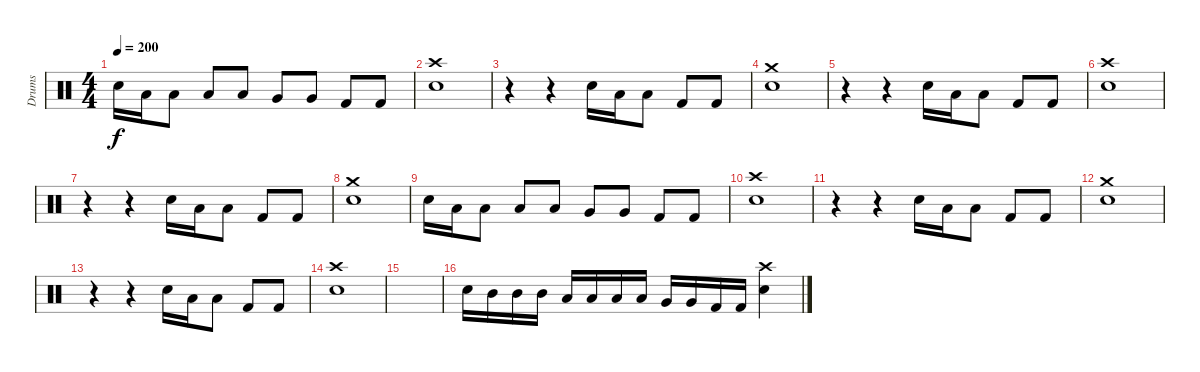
\track ("Drums" "Drums") {instrument percussion}
\staff {score}
\articulation defaults
\ts (4 4)
\tempo 200
\clef neutral
\ks c "Electric Snare (hit)".16{dy f} "Low Tom (hit)".16 "Low Tom (hit)".8 "Low Tom (hit)".8 "Low Tom (hit)".8 "Very Low Tom (hit)".8 "Very Low Tom (hit)".8 "Kick (hit) 2".8 "Kick (hit) 2".8
|
("Crash high (hit)" "Electric Snare (hit)").1 |
r.4 r.4 "Electric Snare (hit)".16 "Low Tom (hit)".16 "Low Tom (hit)".8 "Kick (hit) 2".8 "Kick (hit) 2".8 |
("Crash medium (hit)" "Electric Snare (hit)").1 |
r.4 r.4 "Electric Snare (hit)".16 "Low Tom (hit)".16 "Low Tom (hit)".8 "Kick (hit) 2".8 "Kick (hit) 2".8 |
("Crash high (hit)" "Electric Snare (hit)").1 |
r.4 r.4 "Electric Snare (hit)".16 "Low Tom (hit)".16 "Low Tom (hit)".8 "Kick (hit) 2".8 "Kick (hit) 2".8 |
("Crash medium (hit)" "Electric Snare (hit)").1 |
"Electric Snare (hit)".16 "Low Tom (hit)".16 "Low Tom (hit)".8 "Low Tom (hit)".8 "Low Tom (hit)".8 "Very Low Tom (hit)".8 "Very Low Tom (hit)".8 "Kick (hit) 2".8 "Kick (hit) 2".8 |
("Crash high (hit)" "Electric Snare (hit)").1 |
r.4 r.4 "Electric Snare (hit)".16 "Low Tom (hit)".16 "Low Tom (hit)".8 "Kick (hit) 2".8 "Kick (hit) 2".8 |
("Crash medium (hit)" "Electric Snare (hit)").1 |
r.4 r.4 "Electric Snare (hit)".16 "Low Tom (hit)".16 "Low Tom (hit)".8 "Kick (hit) 2".8 "Kick (hit) 2".8 |
("Crash high (hit)" "Electric Snare (hit)").1 |
|
"Electric Snare (hit)".16 "Mid Tom (hit)".16 "Mid Tom (hit)".16 "Mid Tom (hit)".16 "Low Tom (hit)".16 "Low Tom (hit)".16 "Low Tom (hit)".16 "Low Tom (hit)".16 "Very Low Tom (hit)".16 "Very Low Tom (hit)".16 "Kick (hit) 2".16 "Kick (hit) 2".16 ("Crash high (hit)" "Electric Snare (hit)").4
